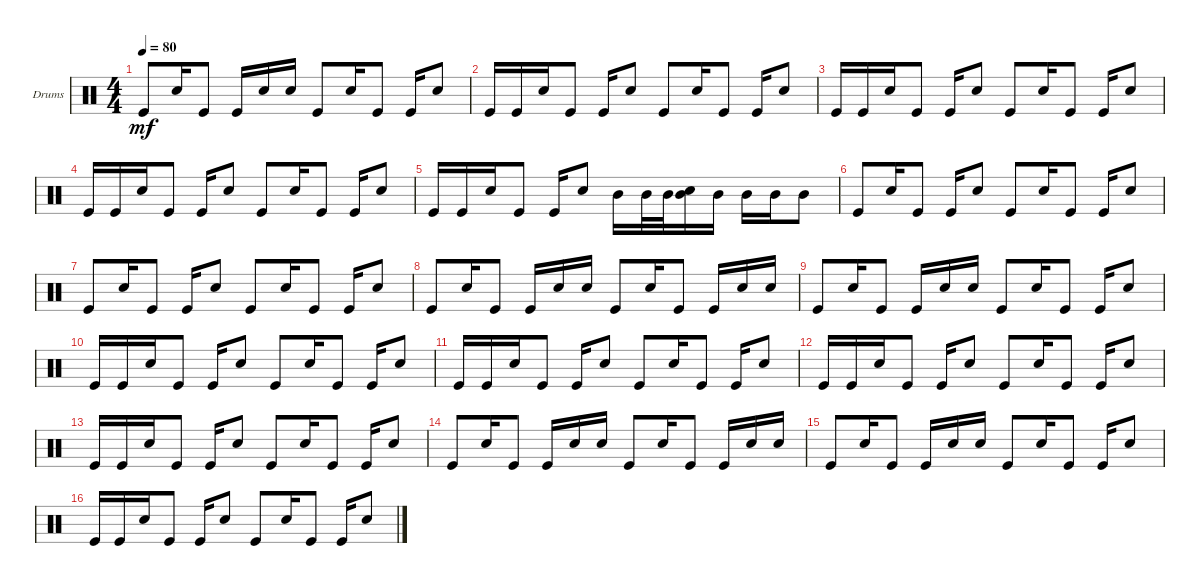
\defaultSystemsLayout 4
\bracketExtendMode groupsimilarinstruments
\firstSystemTrackNameOrientation horizontal
\otherSystemsTrackNameOrientation horizontal
\track ("Барабаны" "Drums") {instrument percussion}
\staff {score}
\articulation defaults
\ts (4 4)
\tempo 80
\clef neutral
\ks c "Kick (hit)".8{dy mf} "Snare (hit) 2".16 "Kick (hit)".8 "Kick (hit)".16 "Snare (hit) 2".16 "Snare (hit) 2".16 "Kick (hit)".8 "Snare (hit) 2".16 "Kick (hit)".8 "Kick (hit)".16 "Snare (hit) 2".8
|
"Kick (hit)".16 "Kick (hit)".16 "Snare (hit) 2".16 "Kick (hit)".8 "Kick (hit)".16 "Snare (hit) 2".8 "Kick (hit)".8 "Snare (hit) 2".16 "Kick (hit)".8 "Kick (hit)".16 "Snare (hit) 2".8 |
"Kick (hit)".16 "Kick (hit)".16 "Snare (hit) 2".16 "Kick (hit)".8 "Kick (hit)".16 "Snare (hit) 2".8 "Kick (hit)".8 "Snare (hit) 2".16 "Kick (hit)".8 "Kick (hit)".16 "Snare (hit) 2".8 |
"Kick (hit)".16 "Kick (hit)".16 "Snare (hit) 2".16 "Kick (hit)".8 "Kick (hit)".16 "Snare (hit) 2".8 "Kick (hit)".8 "Snare (hit) 2".16 "Kick (hit)".8 "Kick (hit)".16 "Snare (hit) 2".8 |
"Kick (hit)".16 "Kick (hit)".16 "Snare (hit) 2".16 "Kick (hit)".8 "Kick (hit)".16 "Snare (hit) 2".8 "Mid Tom (hit)".16 "Mid Tom (hit)".32 "Mid Tom (hit)".32 ("Mid Tom (hit)" "Snare (hit) 2").16 "Mid Tom (hit)".16 "Mid Tom (hit)".16 "Mid Tom (hit)".16 "Mid Tom (hit)".8 |
"Kick (hit)".8 "Snare (hit) 2".16 "Kick (hit)".8 "Kick (hit)".16 "Snare (hit) 2".8 "Kick (hit)".8 "Snare (hit) 2".16 "Kick (hit)".8 "Kick (hit)".16 "Snare (hit) 2".8 |
"Kick (hit)".8 "Snare (hit) 2".16 "Kick (hit)".8 "Kick (hit)".16 "Snare (hit) 2".8 "Kick (hit)".8 "Snare (hit) 2".16 "Kick (hit)".8 "Kick (hit)".16 "Snare (hit) 2".8 |
"Kick (hit)".8 "Snare (hit) 2".16 "Kick (hit)".8 "Kick (hit)".16 "Snare (hit) 2".16 "Snare (hit) 2".16 "Kick (hit)".8 "Snare (hit) 2".16 "Kick (hit)".8 "Kick (hit)".16 "Snare (hit) 2".16 "Snare (hit) 2".16 |
"Kick (hit)".8 "Snare (hit) 2".16 "Kick (hit)".8 "Kick (hit)".16 "Snare (hit) 2".16 "Snare (hit) 2".16 "Kick (hit)".8 "Snare (hit) 2".16 "Kick (hit)".8 "Kick (hit)".16 "Snare (hit) 2".8 |
"Kick (hit)".16 "Kick (hit)".16 "Snare (hit) 2".16 "Kick (hit)".8 "Kick (hit)".16 "Snare (hit) 2".8 "Kick (hit)".8 "Snare (hit) 2".16 "Kick (hit)".8 "Kick (hit)".16 "Snare (hit) 2".8 |
"Kick (hit)".16 "Kick (hit)".16 "Snare (hit) 2".16 "Kick (hit)".8 "Kick (hit)".16 "Snare (hit) 2".8 "Kick (hit)".8 "Snare (hit) 2".16 "Kick (hit)".8 "Kick (hit)".16 "Snare (hit) 2".8 |
"Kick (hit)".16 "Kick (hit)".16 "Snare (hit) 2".16 "Kick (hit)".8 "Kick (hit)".16 "Snare (hit) 2".8 "Kick (hit)".8 "Snare (hit) 2".16 "Kick (hit)".8 "Kick (hit)".16 "Snare (hit) 2".8 |
"Kick (hit)".16 "Kick (hit)".16 "Snare (hit) 2".16 "Kick (hit)".8 "Kick (hit)".16 "Snare (hit) 2".8 "Kick (hit)".8 "Snare (hit) 2".16 "Kick (hit)".8 "Kick (hit)".16 "Snare (hit) 2".8 |
"Kick (hit)".8 "Snare (hit) 2".16 "Kick (hit)".8 "Kick (hit)".16 "Snare (hit) 2".16 "Snare (hit) 2".16 "Kick (hit)".8 "Snare (hit) 2".16 "Kick (hit)".8 "Kick (hit)".16 "Snare (hit) 2".16 "Snare (hit) 2".16 |
"Kick (hit)".8 "Snare (hit) 2".16 "Kick (hit)".8 "Kick (hit)".16 "Snare (hit) 2".16 "Snare (hit) 2".16 "Kick (hit)".8 "Snare (hit) 2".16 "Kick (hit)".8 "Kick (hit)".16 "Snare (hit) 2".8 |
"Kick (hit)".16 "Kick (hit)".16 "Snare (hit) 2".16 "Kick (hit)".8 "Kick (hit)".16 "Snare (hit) 2".8 "Kick (hit)".8 "Snare (hit) 2".16 "Kick (hit)".8 "Kick (hit)".16 "Snare (hit) 2".8
